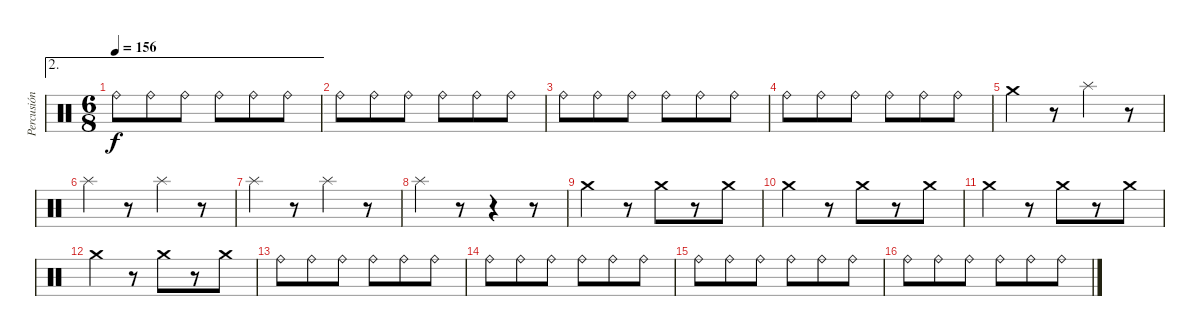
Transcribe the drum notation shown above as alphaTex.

\track ("Percusión" "Percusión") {instrument percussion}
\staff {score}
\articulation defaults
\ae 2
\ts (6 8)
\tempo 156
\clef neutral
\ks c "Ride (bell)".8{dy f} "Ride (bell)".8 "Ride (bell)".8 "Ride (bell)".8 "Ride (bell)".8 "Ride (bell)".8
|
"Ride (bell)".8 "Ride (bell)".8 "Ride (bell)".8 "Ride (bell)".8 "Ride (bell)".8 "Ride (bell)".8 |
"Ride (bell)".8 "Ride (bell)".8 "Ride (bell)".8 "Ride (bell)".8 "Ride (bell)".8 "Ride (bell)".8 |
"Ride (bell)".8 "Ride (bell)".8 "Ride (bell)".8 "Ride (bell)".8 "Ride (bell)".8 "Ride (bell)".8 |
"Crash medium (hit)".4 r.8 "Splash (hit)".4 r.8 |
"Splash (hit)".4 r.8 "Splash (hit)".4 r.8 |
"Splash (hit)".4 r.8 "Splash (hit)".4 r.8 |
"Splash (hit)".4 r.8 r.4 r.8 |
"Crash medium (hit)".4 r.8 "Crash medium (hit)".8 r.8 "Crash medium (hit)".8 |
"Crash medium (hit)".4 r.8 "Crash medium (hit)".8 r.8 "Crash medium (hit)".8 |
"Crash medium (hit)".4 r.8 "Crash medium (hit)".8 r.8 "Crash medium (hit)".8 |
"Crash medium (hit)".4 r.8 "Crash medium (hit)".8 r.8 "Crash medium (hit)".8 |
"Ride (bell)".8 "Ride (bell)".8 "Ride (bell)".8 "Ride (bell)".8 "Ride (bell)".8 "Ride (bell)".8 |
"Ride (bell)".8 "Ride (bell)".8 "Ride (bell)".8 "Ride (bell)".8 "Ride (bell)".8 "Ride (bell)".8 |
"Ride (bell)".8 "Ride (bell)".8 "Ride (bell)".8 "Ride (bell)".8 "Ride (bell)".8 "Ride (bell)".8 |
"Ride (bell)".8 "Ride (bell)".8 "Ride (bell)".8 "Ride (bell)".8 "Ride (bell)".8 "Ride (bell)".8
